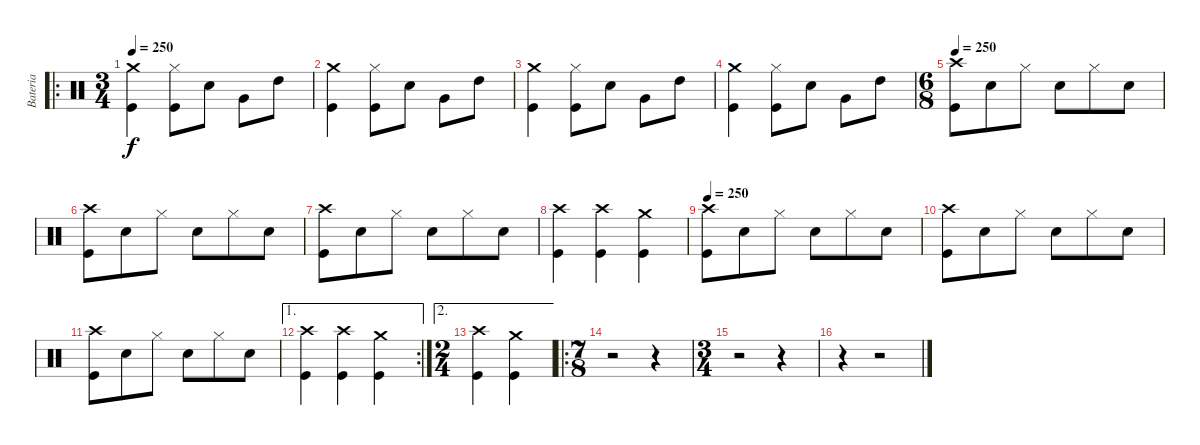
\track ("Bateria" "Bateria") {instrument percussion}
\staff {score}
\articulation defaults
\ro
\ts (3 4)
\tempo 250
\clef neutral
\ks c
("Crash medium (hit)" "Kick (hit)").4{dy f} ("Hi-Hat (closed)" "Kick (hit)").8 "Snare (hit) 2".8 "Very Low Tom (hit)".8 "High Tom (hit)".8 |
("Crash medium (hit)" "Kick (hit)").4 ("Hi-Hat (closed)" "Kick (hit)").8 "Snare (hit) 2".8 "Very Low Tom (hit)".8 "High Tom (hit)".8 |
("Crash medium (hit)" "Kick (hit)").4 ("Hi-Hat (closed)" "Kick (hit)").8 "Snare (hit) 2".8 "Very Low Tom (hit)".8 "High Tom (hit)".8 |
("Crash medium (hit)" "Kick (hit)").4 ("Hi-Hat (closed)" "Kick (hit)").8 "Snare (hit) 2".8 "Very Low Tom (hit)".8 "High Tom (hit)".8 |
\ts (6 8)
\tempo 250
("Crash high (hit)" "Kick (hit)").8 "Snare (hit) 2".8 "Hi-Hat (closed)".8 "Snare (hit) 2".8 "Hi-Hat (closed)".8 "Snare (hit) 2".8 |
("Crash high (hit)" "Kick (hit)").8 "Snare (hit) 2".8 "Hi-Hat (closed)".8 "Snare (hit) 2".8 "Hi-Hat (closed)".8 "Snare (hit) 2".8 |
("Crash high (hit)" "Kick (hit)").8 "Snare (hit) 2".8 "Hi-Hat (closed)".8 "Snare (hit) 2".8 "Hi-Hat (closed)".8 "Snare (hit) 2".8 |
("Crash high (hit)" "Kick (hit)").4 ("Crash high (hit)" "Kick (hit)").4 ("Crash medium (hit)" "Kick (hit)").4 |
\tempo 250
("Crash high (hit)" "Kick (hit)").8 "Snare (hit) 2".8 "Hi-Hat (closed)".8 "Snare (hit) 2".8 "Hi-Hat (closed)".8 "Snare (hit) 2".8 |
("Crash high (hit)" "Kick (hit)").8 "Snare (hit) 2".8 "Hi-Hat (closed)".8 "Snare (hit) 2".8 "Hi-Hat (closed)".8 "Snare (hit) 2".8 |
("Crash high (hit)" "Kick (hit)").8 "Snare (hit) 2".8 "Hi-Hat (closed)".8 "Snare (hit) 2".8 "Hi-Hat (closed)".8 "Snare (hit) 2".8 |
\ae 1
\rc 2
("Crash high (hit)" "Kick (hit)").4 ("Crash high (hit)" "Kick (hit)").4 ("Crash medium (hit)" "Kick (hit)").4 |
\ae 2
\ts (2 4)
("Crash high (hit)" "Kick (hit)").4 ("Crash medium (hit)" "Kick (hit)").4 |
\ro
\ts (7 8)
r.2 r.4 |
\ts (3 4)
r.2 r.4 |
r.4 r.2
